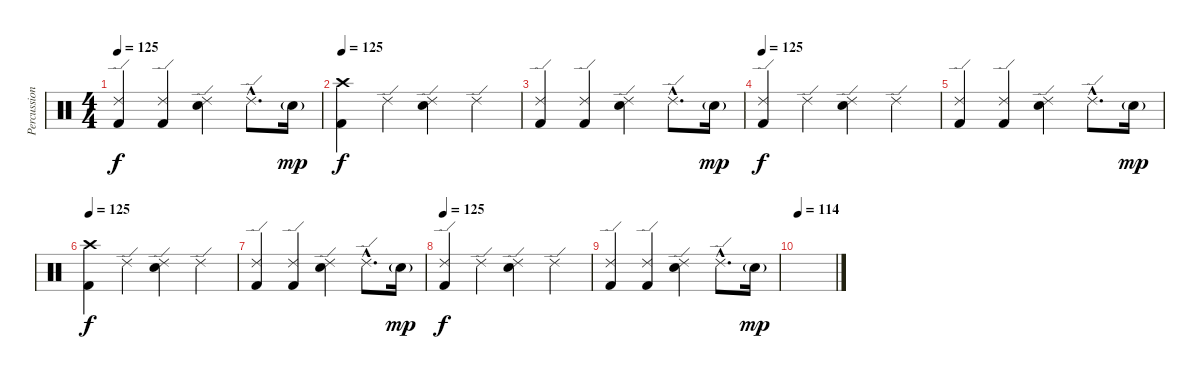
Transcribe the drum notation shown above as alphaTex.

\track ("Percussion - Or" "Percussion") {instrument percussion}
\staff {score}
\articulation defaults
\ts (4 4)
\tempo 125
\clef neutral
\ks c
("Ride (edge) 2" "Kick (hit) 2").4{dy f} ("Ride (edge) 2" "Kick (hit) 2").4 ("Ride (edge) 2" "Snare (hit) 2").4 "Ride (edge) 2"{hac}.8{d} "Snare (hit) 2"{g}.16{dy mp} |
\tempo 125
("Crash high (hit)" "Kick (hit) 2").4{dy f} "Ride (edge) 2".4 ("Ride (edge) 2" "Snare (hit) 2").4 "Ride (edge) 2".4 |
("Ride (edge) 2" "Kick (hit) 2").4 ("Ride (edge) 2" "Kick (hit) 2").4 ("Ride (edge) 2" "Snare (hit) 2").4 "Ride (edge) 2"{hac}.8{d} "Snare (hit) 2"{g}.16{dy mp} |
\tempo 125
("Ride (edge) 2" "Kick (hit) 2").4{dy f} "Ride (edge) 2".4 ("Ride (edge) 2" "Snare (hit) 2").4 "Ride (edge) 2".4 |
("Ride (edge) 2" "Kick (hit) 2").4 ("Ride (edge) 2" "Kick (hit) 2").4 ("Ride (edge) 2" "Snare (hit) 2").4 "Ride (edge) 2"{hac}.8{d} "Snare (hit) 2"{g}.16{dy mp} |
\tempo 125
("Crash high (hit)" "Kick (hit) 2").4{dy f} "Ride (edge) 2".4 ("Ride (edge) 2" "Snare (hit) 2").4 "Ride (edge) 2".4 |
("Ride (edge) 2" "Kick (hit) 2").4 ("Ride (edge) 2" "Kick (hit) 2").4 ("Ride (edge) 2" "Snare (hit) 2").4 "Ride (edge) 2"{hac}.8{d} "Snare (hit) 2"{g}.16{dy mp} |
\tempo 125
("Ride (edge) 2" "Kick (hit) 2").4{dy f} "Ride (edge) 2".4 ("Ride (edge) 2" "Snare (hit) 2").4 "Ride (edge) 2".4 |
("Ride (edge) 2" "Kick (hit) 2").4 ("Ride (edge) 2" "Kick (hit) 2").4 ("Ride (edge) 2" "Snare (hit) 2").4 "Ride (edge) 2"{hac}.8{d} "Snare (hit) 2"{g}.16{dy mp} |
\tempo 114
